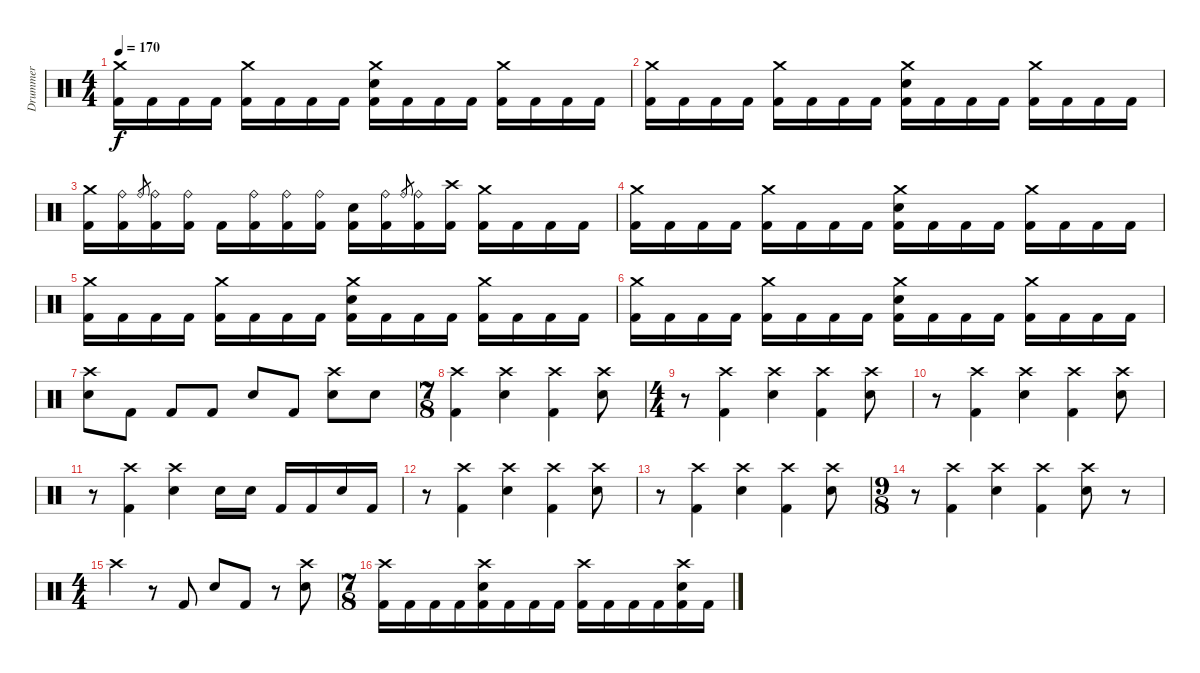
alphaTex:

\track ("Drummer" "Drummer") {instrument percussion}
\staff {score}
\articulation defaults
\ts (4 4)
\tempo 170
\clef neutral
\ks c
("Crash medium (hit)" "Kick (hit) 2").16{dy f} "Kick (hit) 2".16 "Kick (hit) 2".16 "Kick (hit) 2".16 ("Crash medium (hit)" "Kick (hit) 2").16 "Kick (hit) 2".16 "Kick (hit) 2".16 "Kick (hit) 2".16 ("Crash medium (hit)" "Electric Snare (hit)" "Kick (hit) 2").16 "Kick (hit) 2".16 "Kick (hit) 2".16 "Kick (hit) 2".16 ("Crash medium (hit)" "Kick (hit) 2").16 "Kick (hit) 2".16 "Kick (hit) 2".16 "Kick (hit) 2".16 |
("Crash medium (hit)" "Kick (hit) 2").16 "Kick (hit) 2".16 "Kick (hit) 2".16 "Kick (hit) 2".16 ("Crash medium (hit)" "Kick (hit) 2").16 "Kick (hit) 2".16 "Kick (hit) 2".16 "Kick (hit) 2".16 ("Crash medium (hit)" "Electric Snare (hit)" "Kick (hit) 2").16 "Kick (hit) 2".16 "Kick (hit) 2".16 "Kick (hit) 2".16 ("Crash medium (hit)" "Kick (hit) 2").16 "Kick (hit) 2".16 "Kick (hit) 2".16 "Kick (hit) 2".16 |
("Crash medium (hit)" "Kick (hit) 2").16 ("Ride (bell)" "Kick (hit) 2").16 "Ride (bell)".8{gr} ("Ride (bell)" "Kick (hit) 2").16 ("Ride (bell)" "Kick (hit) 2").16 "Kick (hit) 2".16 ("Ride (bell)" "Kick (hit) 2").16 ("Ride (bell)" "Kick (hit) 2").16 ("Ride (bell)" "Kick (hit) 2").16 ("Electric Snare (hit)" "Kick (hit) 2").16 ("Ride (bell)" "Kick (hit) 2").16 "Ride (bell)".8{gr} ("Ride (bell)" "Kick (hit) 2").16 ("Crash high (hit)" "Kick (hit) 2").16 ("Crash medium (hit)" "Kick (hit) 2").16 "Kick (hit) 2".16 "Kick (hit) 2".16 "Kick (hit) 2".16 |
("Crash medium (hit)" "Kick (hit) 2").16 "Kick (hit) 2".16 "Kick (hit) 2".16 "Kick (hit) 2".16 ("Crash medium (hit)" "Kick (hit) 2").16 "Kick (hit) 2".16 "Kick (hit) 2".16 "Kick (hit) 2".16 ("Crash medium (hit)" "Electric Snare (hit)" "Kick (hit) 2").16 "Kick (hit) 2".16 "Kick (hit) 2".16 "Kick (hit) 2".16 ("Crash medium (hit)" "Kick (hit) 2").16 "Kick (hit) 2".16 "Kick (hit) 2".16 "Kick (hit) 2".16 |
("Crash medium (hit)" "Kick (hit) 2").16 "Kick (hit) 2".16 "Kick (hit) 2".16 "Kick (hit) 2".16 ("Crash medium (hit)" "Kick (hit) 2").16 "Kick (hit) 2".16 "Kick (hit) 2".16 "Kick (hit) 2".16 ("Crash medium (hit)" "Electric Snare (hit)" "Kick (hit) 2").16 "Kick (hit) 2".16 "Kick (hit) 2".16 "Kick (hit) 2".16 ("Crash medium (hit)" "Kick (hit) 2").16 "Kick (hit) 2".16 "Kick (hit) 2".16 "Kick (hit) 2".16 |
("Crash medium (hit)" "Kick (hit) 2").16 "Kick (hit) 2".16 "Kick (hit) 2".16 "Kick (hit) 2".16 ("Crash medium (hit)" "Kick (hit) 2").16 "Kick (hit) 2".16 "Kick (hit) 2".16 "Kick (hit) 2".16 ("Crash medium (hit)" "Electric Snare (hit)" "Kick (hit) 2").16 "Kick (hit) 2".16 "Kick (hit) 2".16 "Kick (hit) 2".16 ("Crash medium (hit)" "Kick (hit) 2").16 "Kick (hit) 2".16 "Kick (hit) 2".16 "Kick (hit) 2".16 |
("Crash high (hit)" "Electric Snare (hit)").8 "Kick (hit) 2".8 "Kick (hit) 2".8 "Kick (hit) 2".8 "Electric Snare (hit)".8 "Kick (hit) 2".8 ("Crash high (hit)" "Electric Snare (hit)").8 "Electric Snare (hit)".8 |
\ts (7 8)
("Crash high (hit)" "Kick (hit) 2").4 ("Crash high (hit)" "Electric Snare (hit)").4 ("Crash high (hit)" "Kick (hit) 2").4 ("Crash high (hit)" "Electric Snare (hit)").8 |
\ts (4 4)
r.8 ("Crash high (hit)" "Kick (hit) 2").4 ("Crash high (hit)" "Electric Snare (hit)").4 ("Crash high (hit)" "Kick (hit) 2").4 ("Crash high (hit)" "Electric Snare (hit)").8 |
r.8 ("Crash high (hit)" "Kick (hit) 2").4 ("Crash high (hit)" "Electric Snare (hit)").4 ("Crash high (hit)" "Kick (hit) 2").4 ("Crash high (hit)" "Electric Snare (hit)").8 |
r.8 ("Crash high (hit)" "Kick (hit) 2").4 ("Crash high (hit)" "Electric Snare (hit)").4 "Electric Snare (hit)".16 "Electric Snare (hit)".16 "Kick (hit) 2".16 "Kick (hit) 2".16 "Electric Snare (hit)".16 "Kick (hit) 2".16 |
r.8 ("Crash high (hit)" "Kick (hit) 2").4 ("Crash high (hit)" "Electric Snare (hit)").4 ("Crash high (hit)" "Kick (hit) 2").4 ("Crash high (hit)" "Electric Snare (hit)").8 |
r.8 ("Crash high (hit)" "Kick (hit) 2").4 ("Crash high (hit)" "Electric Snare (hit)").4 ("Crash high (hit)" "Kick (hit) 2").4 ("Crash high (hit)" "Electric Snare (hit)").8 |
\ts (9 8)
r.8 ("Crash high (hit)" "Kick (hit) 2").4 ("Crash high (hit)" "Electric Snare (hit)").4 ("Crash high (hit)" "Kick (hit) 2").4 ("Crash high (hit)" "Electric Snare (hit)").8 r.8 |
\ts (4 4)
"Crash high (hit)".4 r.8 "Kick (hit) 2".8 "Electric Snare (hit)".8 "Kick (hit) 2".8 r.8 ("Crash high (hit)" "Electric Snare (hit)").8 |
\ts (7 8)
("Crash high (hit)" "Kick (hit) 2").16 "Kick (hit) 2".16 "Kick (hit) 2".16 "Kick (hit) 2".16 ("Crash high (hit)" "Electric Snare (hit)" "Kick (hit) 2").16 "Kick (hit) 2".16 "Kick (hit) 2".16 "Kick (hit) 2".16 ("Crash high (hit)" "Kick (hit) 2").16 "Kick (hit) 2".16 "Kick (hit) 2".16 "Kick (hit) 2".16 ("Crash high (hit)" "Electric Snare (hit)" "Kick (hit) 2").16 "Kick (hit) 2".16
